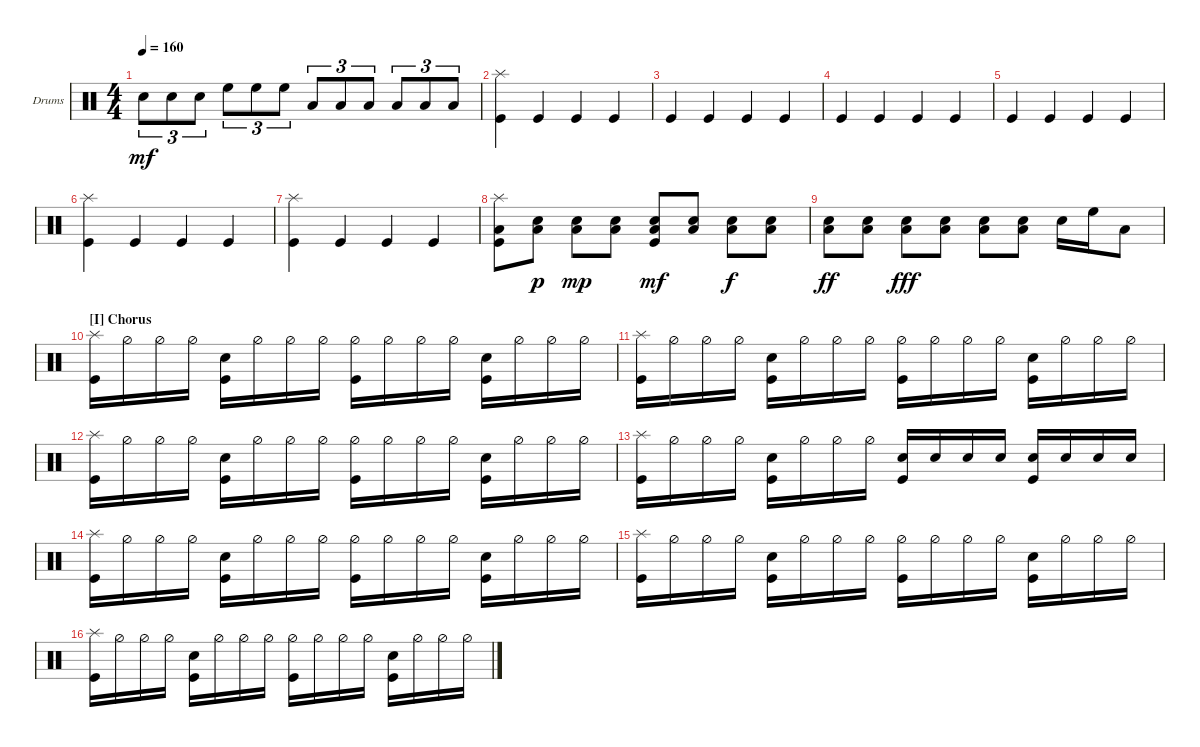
\bracketExtendMode groupsimilarinstruments
\firstSystemTrackNameOrientation horizontal
\otherSystemsTrackNameOrientation horizontal
\track ("Drumkit" "Drums") {instrument percussion}
\staff {score}
\articulation defaults
\ts (4 4)
\tempo 160
\clef neutral
\ks c "Snare (hit) 2".8{tu (3 2) dy mf} "Snare (hit) 2".8{tu (3 2)} "Snare (hit) 2".8{tu (3 2)} "High Floor Tom (hit)".8{tu (3 2)} "High Floor Tom (hit)".8{tu (3 2)} "High Floor Tom (hit)".8{tu (3 2)} "Low Tom (hit)".8{tu (3 2)} "Low Tom (hit)".8{tu (3 2)} "Low Tom (hit)".8{tu (3 2)} "Low Tom (hit)".8{tu (3 2)} "Low Tom (hit)".8{tu (3 2)} "Low Tom (hit)".8{tu (3 2)}
|
("Kick (hit)" "Splash (hit)").4 "Kick (hit)".4 "Kick (hit)".4 "Kick (hit)".4 |
"Kick (hit)".4 "Kick (hit)".4 "Kick (hit)".4 "Kick (hit)".4 |
"Kick (hit)".4 "Kick (hit)".4 "Kick (hit)".4 "Kick (hit)".4 |
"Kick (hit)".4 "Kick (hit)".4 "Kick (hit)".4 "Kick (hit)".4 |
("Kick (hit)" "Splash (hit)").4 "Kick (hit)".4 "Kick (hit)".4 "Kick (hit)".4 |
("Kick (hit)" "Splash (hit)").4 "Kick (hit)".4 "Kick (hit)".4 "Kick (hit)".4 |
("Splash (hit)" "Kick (hit)" "Low Tom (hit)").8 ("Low Tom (hit)" "Snare (hit) 2").8{dy p} ("Low Tom (hit)" "Snare (hit) 2").8{dy mp} ("Low Tom (hit)" "Snare (hit) 2").8 ("Low Tom (hit)" "Kick (hit)" "Snare (hit) 2").8{dy mf} ("Low Tom (hit)" "Snare (hit) 2").8 ("Low Tom (hit)" "Snare (hit) 2").8{dy f} ("Low Tom (hit)" "Snare (hit) 2").8 |
("Low Tom (hit)" "Snare (hit) 2").8{dy ff} ("Low Tom (hit)" "Snare (hit) 2").8 ("Low Tom (hit)" "Snare (hit) 2").8{dy fff} ("Low Tom (hit)" "Snare (hit) 2").8 ("Low Tom (hit)" "Snare (hit) 2").8 ("Low Tom (hit)" "Snare (hit) 2").8 "Snare (hit) 2".16 "High Floor Tom (hit)".16 "Low Tom (hit)".8 |
\section ("I" "Chorus")
("Kick (hit)" "Splash (hit)").16 "Hi-Hat (half)".16 "Hi-Hat (half)".16 "Hi-Hat (half)".16 ("Snare (hit) 2" "Kick (hit)").16 "Hi-Hat (half)".16 "Hi-Hat (half)".16 "Hi-Hat (half)".16 ("Kick (hit)" "Hi-Hat (half)").16 "Hi-Hat (half)".16 "Hi-Hat (half)".16 "Hi-Hat (half)".16 ("Snare (hit) 2" "Kick (hit)").16 "Hi-Hat (half)".16 "Hi-Hat (half)".16 "Hi-Hat (half)".16 |
("Kick (hit)" "Splash (hit)").16 "Hi-Hat (half)".16 "Hi-Hat (half)".16 "Hi-Hat (half)".16 ("Snare (hit) 2" "Kick (hit)").16 "Hi-Hat (half)".16 "Hi-Hat (half)".16 "Hi-Hat (half)".16 ("Kick (hit)" "Hi-Hat (half)").16 "Hi-Hat (half)".16 "Hi-Hat (half)".16 "Hi-Hat (half)".16 ("Snare (hit) 2" "Kick (hit)").16 "Hi-Hat (half)".16 "Hi-Hat (half)".16 "Hi-Hat (half)".16 |
("Kick (hit)" "Splash (hit)").16 "Hi-Hat (half)".16 "Hi-Hat (half)".16 "Hi-Hat (half)".16 ("Snare (hit) 2" "Kick (hit)").16 "Hi-Hat (half)".16 "Hi-Hat (half)".16 "Hi-Hat (half)".16 ("Kick (hit)" "Hi-Hat (half)").16 "Hi-Hat (half)".16 "Hi-Hat (half)".16 "Hi-Hat (half)".16 ("Snare (hit) 2" "Kick (hit)").16 "Hi-Hat (half)".16 "Hi-Hat (half)".16 "Hi-Hat (half)".16 |
("Kick (hit)" "Splash (hit)").16 "Hi-Hat (half)".16 "Hi-Hat (half)".16 "Hi-Hat (half)".16 ("Snare (hit) 2" "Kick (hit)").16 "Hi-Hat (half)".16 "Hi-Hat (half)".16 "Hi-Hat (half)".16 ("Kick (hit)" "Snare (hit) 2").16 "Snare (hit) 2".16 "Snare (hit) 2".16 "Snare (hit) 2".16 ("Snare (hit) 2" "Kick (hit)").16 "Snare (hit) 2".16 "Snare (hit) 2".16 "Snare (hit) 2".16 |
("Kick (hit)" "Splash (hit)").16 "Hi-Hat (half)".16 "Hi-Hat (half)".16 "Hi-Hat (half)".16 ("Snare (hit) 2" "Kick (hit)").16 "Hi-Hat (half)".16 "Hi-Hat (half)".16 "Hi-Hat (half)".16 ("Kick (hit)" "Hi-Hat (half)").16 "Hi-Hat (half)".16 "Hi-Hat (half)".16 "Hi-Hat (half)".16 ("Snare (hit) 2" "Kick (hit)").16 "Hi-Hat (half)".16 "Hi-Hat (half)".16 "Hi-Hat (half)".16 |
("Kick (hit)" "Splash (hit)").16 "Hi-Hat (half)".16 "Hi-Hat (half)".16 "Hi-Hat (half)".16 ("Snare (hit) 2" "Kick (hit)").16 "Hi-Hat (half)".16 "Hi-Hat (half)".16 "Hi-Hat (half)".16 ("Kick (hit)" "Hi-Hat (half)").16 "Hi-Hat (half)".16 "Hi-Hat (half)".16 "Hi-Hat (half)".16 ("Snare (hit) 2" "Kick (hit)").16 "Hi-Hat (half)".16 "Hi-Hat (half)".16 "Hi-Hat (half)".16 |
("Kick (hit)" "Splash (hit)").16 "Hi-Hat (half)".16 "Hi-Hat (half)".16 "Hi-Hat (half)".16 ("Snare (hit) 2" "Kick (hit)").16 "Hi-Hat (half)".16 "Hi-Hat (half)".16 "Hi-Hat (half)".16 ("Kick (hit)" "Hi-Hat (half)").16 "Hi-Hat (half)".16 "Hi-Hat (half)".16 "Hi-Hat (half)".16 ("Snare (hit) 2" "Kick (hit)").16 "Hi-Hat (half)".16 "Hi-Hat (half)".16 "Hi-Hat (half)".16
